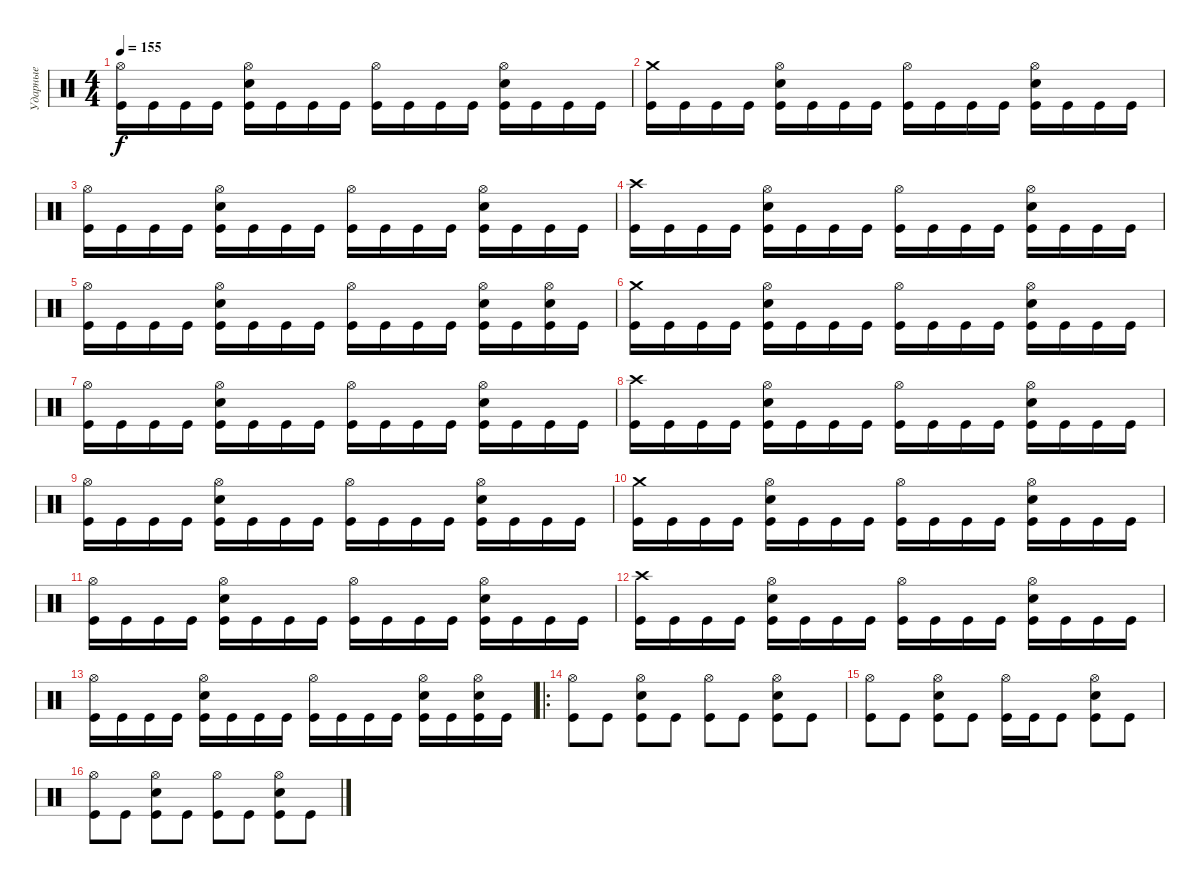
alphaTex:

\track ("Ударные" "Ударные") {instrument percussion}
\staff {score}
\articulation defaults
\ts (4 4)
\tempo 155
\clef neutral
\ks c
("Hi-Hat (open)" "Kick (hit)").16{dy f} "Kick (hit)".16 "Kick (hit)".16 "Kick (hit)".16 ("Snare (hit) 2" "Hi-Hat (open)" "Kick (hit)").16 "Kick (hit)".16 "Kick (hit)".16 "Kick (hit)".16 ("Hi-Hat (open)" "Kick (hit)").16 "Kick (hit)".16 "Kick (hit)".16 "Kick (hit)".16 ("Snare (hit) 2" "Hi-Hat (open)" "Kick (hit)").16 "Kick (hit)".16 "Kick (hit)".16 "Kick (hit)".16 |
("Crash medium (hit)" "Kick (hit)").16 "Kick (hit)".16 "Kick (hit)".16 "Kick (hit)".16 ("Snare (hit) 2" "Hi-Hat (open)" "Kick (hit)").16 "Kick (hit)".16 "Kick (hit)".16 "Kick (hit)".16 ("Hi-Hat (open)" "Kick (hit)").16 "Kick (hit)".16 "Kick (hit)".16 "Kick (hit)".16 ("Snare (hit) 2" "Hi-Hat (open)" "Kick (hit)").16 "Kick (hit)".16 "Kick (hit)".16 "Kick (hit)".16 |
("Hi-Hat (open)" "Kick (hit)").16 "Kick (hit)".16 "Kick (hit)".16 "Kick (hit)".16 ("Snare (hit) 2" "Hi-Hat (open)" "Kick (hit)").16 "Kick (hit)".16 "Kick (hit)".16 "Kick (hit)".16 ("Hi-Hat (open)" "Kick (hit)").16 "Kick (hit)".16 "Kick (hit)".16 "Kick (hit)".16 ("Snare (hit) 2" "Hi-Hat (open)" "Kick (hit)").16 "Kick (hit)".16 "Kick (hit)".16 "Kick (hit)".16 |
("Crash high (hit)" "Kick (hit)").16 "Kick (hit)".16 "Kick (hit)".16 "Kick (hit)".16 ("Snare (hit) 2" "Hi-Hat (open)" "Kick (hit)").16 "Kick (hit)".16 "Kick (hit)".16 "Kick (hit)".16 ("Hi-Hat (open)" "Kick (hit)").16 "Kick (hit)".16 "Kick (hit)".16 "Kick (hit)".16 ("Snare (hit) 2" "Hi-Hat (open)" "Kick (hit)").16 "Kick (hit)".16 "Kick (hit)".16 "Kick (hit)".16 |
("Hi-Hat (open)" "Kick (hit)").16 "Kick (hit)".16 "Kick (hit)".16 "Kick (hit)".16 ("Snare (hit) 2" "Hi-Hat (open)" "Kick (hit)").16 "Kick (hit)".16 "Kick (hit)".16 "Kick (hit)".16 ("Hi-Hat (open)" "Kick (hit)").16 "Kick (hit)".16 "Kick (hit)".16 "Kick (hit)".16 ("Snare (hit) 2" "Hi-Hat (open)" "Kick (hit)").16 "Kick (hit)".16 ("Snare (hit) 2" "Hi-Hat (open)" "Kick (hit)").16 "Kick (hit)".16 |
("Crash medium (hit)" "Kick (hit)").16 "Kick (hit)".16 "Kick (hit)".16 "Kick (hit)".16 ("Snare (hit) 2" "Hi-Hat (open)" "Kick (hit)").16 "Kick (hit)".16 "Kick (hit)".16 "Kick (hit)".16 ("Hi-Hat (open)" "Kick (hit)").16 "Kick (hit)".16 "Kick (hit)".16 "Kick (hit)".16 ("Snare (hit) 2" "Hi-Hat (open)" "Kick (hit)").16 "Kick (hit)".16 "Kick (hit)".16 "Kick (hit)".16 |
("Hi-Hat (open)" "Kick (hit)").16 "Kick (hit)".16 "Kick (hit)".16 "Kick (hit)".16 ("Snare (hit) 2" "Hi-Hat (open)" "Kick (hit)").16 "Kick (hit)".16 "Kick (hit)".16 "Kick (hit)".16 ("Hi-Hat (open)" "Kick (hit)").16 "Kick (hit)".16 "Kick (hit)".16 "Kick (hit)".16 ("Snare (hit) 2" "Hi-Hat (open)" "Kick (hit)").16 "Kick (hit)".16 "Kick (hit)".16 "Kick (hit)".16 |
("Crash high (hit)" "Kick (hit)").16 "Kick (hit)".16 "Kick (hit)".16 "Kick (hit)".16 ("Snare (hit) 2" "Hi-Hat (open)" "Kick (hit)").16 "Kick (hit)".16 "Kick (hit)".16 "Kick (hit)".16 ("Hi-Hat (open)" "Kick (hit)").16 "Kick (hit)".16 "Kick (hit)".16 "Kick (hit)".16 ("Snare (hit) 2" "Hi-Hat (open)" "Kick (hit)").16 "Kick (hit)".16 "Kick (hit)".16 "Kick (hit)".16 |
("Hi-Hat (open)" "Kick (hit)").16 "Kick (hit)".16 "Kick (hit)".16 "Kick (hit)".16 ("Snare (hit) 2" "Hi-Hat (open)" "Kick (hit)").16 "Kick (hit)".16 "Kick (hit)".16 "Kick (hit)".16 ("Hi-Hat (open)" "Kick (hit)").16 "Kick (hit)".16 "Kick (hit)".16 "Kick (hit)".16 ("Snare (hit) 2" "Hi-Hat (open)" "Kick (hit)").16 "Kick (hit)".16 "Kick (hit)".16 "Kick (hit)".16 |
("Crash medium (hit)" "Kick (hit)").16 "Kick (hit)".16 "Kick (hit)".16 "Kick (hit)".16 ("Snare (hit) 2" "Hi-Hat (open)" "Kick (hit)").16 "Kick (hit)".16 "Kick (hit)".16 "Kick (hit)".16 ("Hi-Hat (open)" "Kick (hit)").16 "Kick (hit)".16 "Kick (hit)".16 "Kick (hit)".16 ("Snare (hit) 2" "Hi-Hat (open)" "Kick (hit)").16 "Kick (hit)".16 "Kick (hit)".16 "Kick (hit)".16 |
("Hi-Hat (open)" "Kick (hit)").16 "Kick (hit)".16 "Kick (hit)".16 "Kick (hit)".16 ("Snare (hit) 2" "Hi-Hat (open)" "Kick (hit)").16 "Kick (hit)".16 "Kick (hit)".16 "Kick (hit)".16 ("Hi-Hat (open)" "Kick (hit)").16 "Kick (hit)".16 "Kick (hit)".16 "Kick (hit)".16 ("Snare (hit) 2" "Hi-Hat (open)" "Kick (hit)").16 "Kick (hit)".16 "Kick (hit)".16 "Kick (hit)".16 |
("Crash high (hit)" "Kick (hit)").16 "Kick (hit)".16 "Kick (hit)".16 "Kick (hit)".16 ("Snare (hit) 2" "Hi-Hat (open)" "Kick (hit)").16 "Kick (hit)".16 "Kick (hit)".16 "Kick (hit)".16 ("Hi-Hat (open)" "Kick (hit)").16 "Kick (hit)".16 "Kick (hit)".16 "Kick (hit)".16 ("Snare (hit) 2" "Hi-Hat (open)" "Kick (hit)").16 "Kick (hit)".16 "Kick (hit)".16 "Kick (hit)".16 |
("Hi-Hat (open)" "Kick (hit)").16 "Kick (hit)".16 "Kick (hit)".16 "Kick (hit)".16 ("Snare (hit) 2" "Hi-Hat (open)" "Kick (hit)").16 "Kick (hit)".16 "Kick (hit)".16 "Kick (hit)".16 ("Hi-Hat (open)" "Kick (hit)").16 "Kick (hit)".16 "Kick (hit)".16 "Kick (hit)".16 ("Snare (hit) 2" "Hi-Hat (open)" "Kick (hit)").16 "Kick (hit)".16 ("Snare (hit) 2" "Hi-Hat (open)" "Kick (hit)").16 "Kick (hit)".16 |
\ro
("Hi-Hat (open)" "Kick (hit)").8 "Kick (hit)".8 ("Snare (hit) 2" "Hi-Hat (open)" "Kick (hit)").8 "Kick (hit)".8 ("Hi-Hat (open)" "Kick (hit)").8 "Kick (hit)".8 ("Snare (hit) 2" "Hi-Hat (open)" "Kick (hit)").8 "Kick (hit)".8 |
("Hi-Hat (open)" "Kick (hit)").8 "Kick (hit)".8 ("Snare (hit) 2" "Hi-Hat (open)" "Kick (hit)").8 "Kick (hit)".8 ("Hi-Hat (open)" "Kick (hit)").16 "Kick (hit)".16 "Kick (hit)".8 ("Snare (hit) 2" "Hi-Hat (open)" "Kick (hit)").8 "Kick (hit)".8 |
("Hi-Hat (open)" "Kick (hit)").8 "Kick (hit)".8 ("Snare (hit) 2" "Hi-Hat (open)" "Kick (hit)").8 "Kick (hit)".8 ("Hi-Hat (open)" "Kick (hit)").8 "Kick (hit)".8 ("Snare (hit) 2" "Hi-Hat (open)" "Kick (hit)").8 "Kick (hit)".8
